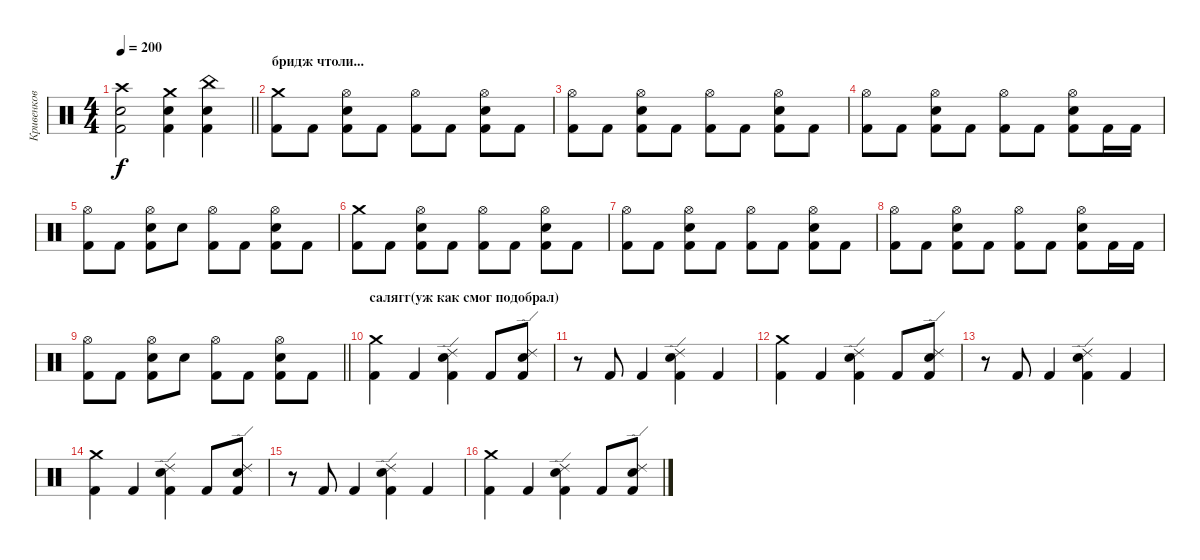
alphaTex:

\track ("Кривенков" "Кривенков") {instrument percussion}
\staff {score}
\articulation defaults
\ts (4 4)
\tempo 200
\clef neutral
\barLineRight lightlight
\ks c
("Crash high (hit)" "Electric Snare (hit)" "Kick (hit) 2").2{dy f} ("Crash medium (hit)" "Electric Snare (hit)" "Kick (hit) 2").4 ("China (hit)" "Electric Snare (hit)" "Kick (hit) 2").4 |
\section ("" "бридж чтоли...")
("Crash medium (hit)" "Kick (hit) 2").8 "Kick (hit) 2".8 ("Hi-Hat (open)" "Electric Snare (hit)" "Kick (hit) 2").8 "Kick (hit) 2".8 ("Hi-Hat (open)" "Kick (hit) 2").8 "Kick (hit) 2".8 ("Hi-Hat (open)" "Electric Snare (hit)" "Kick (hit) 2").8 "Kick (hit) 2".8 |
("Hi-Hat (open)" "Kick (hit) 2").8 "Kick (hit) 2".8 ("Hi-Hat (open)" "Electric Snare (hit)" "Kick (hit) 2").8 "Kick (hit) 2".8 ("Hi-Hat (open)" "Kick (hit) 2").8 "Kick (hit) 2".8 ("Hi-Hat (open)" "Electric Snare (hit)" "Kick (hit) 2").8 "Kick (hit) 2".8 |
("Hi-Hat (open)" "Kick (hit) 2").8 "Kick (hit) 2".8 ("Hi-Hat (open)" "Electric Snare (hit)" "Kick (hit) 2").8 "Kick (hit) 2".8 ("Hi-Hat (open)" "Kick (hit) 2").8 "Kick (hit) 2".8 ("Hi-Hat (open)" "Electric Snare (hit)" "Kick (hit) 2").8 "Kick (hit) 2".16 "Kick (hit) 2".16 |
("Hi-Hat (open)" "Kick (hit) 2").8 "Kick (hit) 2".8 ("Hi-Hat (open)" "Electric Snare (hit)" "Kick (hit) 2").8 "Electric Snare (hit)".8 ("Hi-Hat (open)" "Kick (hit) 2").8 "Kick (hit) 2".8 ("Hi-Hat (open)" "Electric Snare (hit)" "Kick (hit) 2").8 "Kick (hit) 2".8 |
("Crash medium (hit)" "Kick (hit) 2").8 "Kick (hit) 2".8 ("Hi-Hat (open)" "Electric Snare (hit)" "Kick (hit) 2").8 "Kick (hit) 2".8 ("Hi-Hat (open)" "Kick (hit) 2").8 "Kick (hit) 2".8 ("Hi-Hat (open)" "Electric Snare (hit)" "Kick (hit) 2").8 "Kick (hit) 2".8 |
("Hi-Hat (open)" "Kick (hit) 2").8 "Kick (hit) 2".8 ("Hi-Hat (open)" "Electric Snare (hit)" "Kick (hit) 2").8 "Kick (hit) 2".8 ("Hi-Hat (open)" "Kick (hit) 2").8 "Kick (hit) 2".8 ("Hi-Hat (open)" "Electric Snare (hit)" "Kick (hit) 2").8 "Kick (hit) 2".8 |
("Hi-Hat (open)" "Kick (hit) 2").8 "Kick (hit) 2".8 ("Hi-Hat (open)" "Electric Snare (hit)" "Kick (hit) 2").8 "Kick (hit) 2".8 ("Hi-Hat (open)" "Kick (hit) 2").8 "Kick (hit) 2".8 ("Hi-Hat (open)" "Electric Snare (hit)" "Kick (hit) 2").8 "Kick (hit) 2".16 "Kick (hit) 2".16 |
\barLineRight lightlight
("Hi-Hat (open)" "Kick (hit) 2").8 "Kick (hit) 2".8 ("Hi-Hat (open)" "Electric Snare (hit)" "Kick (hit) 2").8 "Electric Snare (hit)".8 ("Hi-Hat (open)" "Kick (hit) 2").8 "Kick (hit) 2".8 ("Hi-Hat (open)" "Electric Snare (hit)" "Kick (hit) 2").8 "Kick (hit) 2".8 |
\section ("" "салягг(уж как смог подобрал)")
("Crash medium (hit)" "Kick (hit) 2").4 "Kick (hit) 2".4 ("Ride (edge) 2" "Electric Snare (hit)" "Kick (hit) 2").4 "Kick (hit) 2".8 ("Ride (edge) 2" "Electric Snare (hit)" "Kick (hit) 2").8 |
r.8 "Kick (hit) 2".8 "Kick (hit) 2".4 ("Ride (edge) 2" "Electric Snare (hit)" "Kick (hit) 2").4 "Kick (hit) 2".4 |
("Crash medium (hit)" "Kick (hit) 2").4 "Kick (hit) 2".4 ("Ride (edge) 2" "Electric Snare (hit)" "Kick (hit) 2").4 "Kick (hit) 2".8 ("Ride (edge) 2" "Electric Snare (hit)" "Kick (hit) 2").8 |
r.8 "Kick (hit) 2".8 "Kick (hit) 2".4 ("Ride (edge) 2" "Electric Snare (hit)" "Kick (hit) 2").4 "Kick (hit) 2".4 |
("Crash medium (hit)" "Kick (hit) 2").4 "Kick (hit) 2".4 ("Ride (edge) 2" "Electric Snare (hit)" "Kick (hit) 2").4 "Kick (hit) 2".8 ("Ride (edge) 2" "Electric Snare (hit)" "Kick (hit) 2").8 |
r.8 "Kick (hit) 2".8 "Kick (hit) 2".4 ("Ride (edge) 2" "Electric Snare (hit)" "Kick (hit) 2").4 "Kick (hit) 2".4 |
("Crash medium (hit)" "Kick (hit) 2").4 "Kick (hit) 2".4 ("Ride (edge) 2" "Electric Snare (hit)" "Kick (hit) 2").4 "Kick (hit) 2".8 ("Ride (edge) 2" "Electric Snare (hit)" "Kick (hit) 2").8
